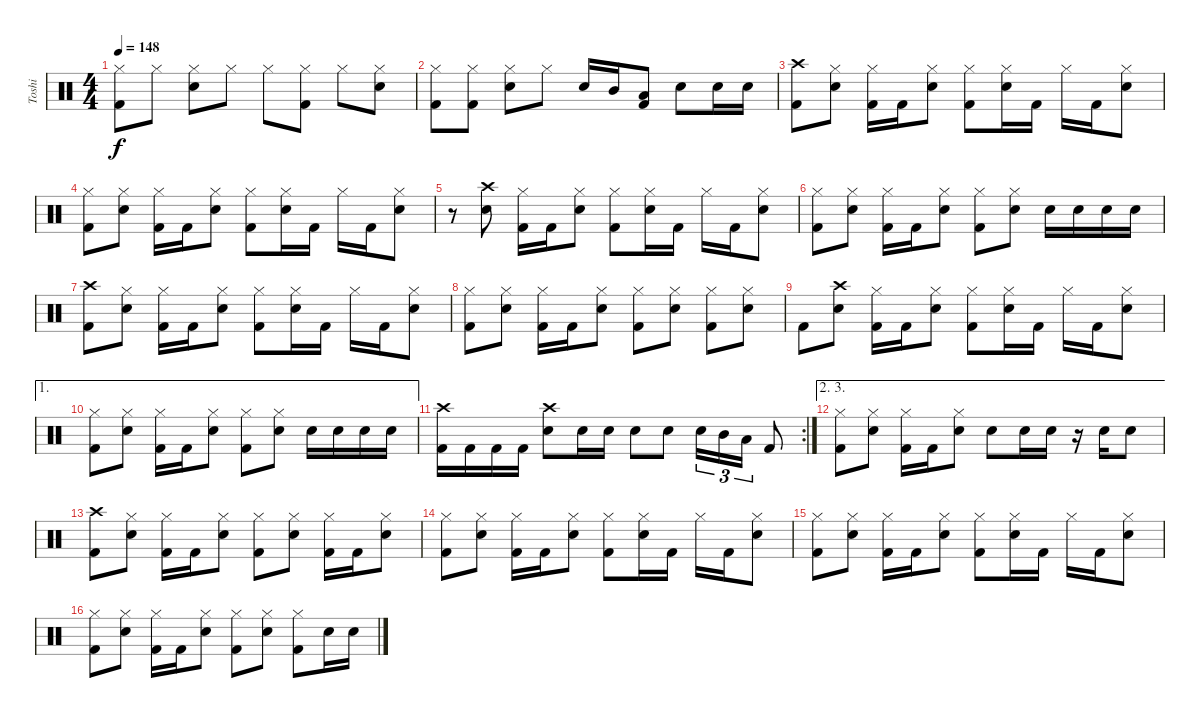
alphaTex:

\track ("Toshi" "Toshi") {instrument percussion}
\staff {score}
\articulation defaults
\ts (4 4)
\tempo 148
\clef neutral
\ks c
("Hi-Hat (closed)" "Kick (hit) 2").8{dy f} "Hi-Hat (closed)".8 ("Hi-Hat (closed)" "Snare (hit) 2").8 "Hi-Hat (closed)".8 "Hi-Hat (closed)".8 ("Hi-Hat (closed)" "Kick (hit) 2").8 "Hi-Hat (closed)".8 ("Hi-Hat (closed)" "Snare (hit) 2").8 |
("Hi-Hat (closed)" "Kick (hit) 2").8 ("Hi-Hat (closed)" "Kick (hit) 2").8 ("Hi-Hat (closed)" "Snare (hit) 2").8 "Hi-Hat (closed)".8 "Snare (hit) 2".16 "Mid Tom (hit)".16 ("Low Tom (hit)" "Kick (hit) 2").8 "Snare (hit) 2".8 "Snare (hit) 2".16 "Snare (hit) 2".16 |
("Crash high (hit)" "Kick (hit) 2").8 ("Hi-Hat (closed)" "Snare (hit) 2").8 ("Hi-Hat (closed)" "Kick (hit) 2").16 "Kick (hit) 2".16 ("Hi-Hat (closed)" "Snare (hit) 2").8 ("Hi-Hat (closed)" "Kick (hit) 2").8 ("Hi-Hat (closed)" "Snare (hit) 2").16 "Kick (hit) 2".16 "Hi-Hat (closed)".16 "Kick (hit) 2".16 ("Hi-Hat (closed)" "Snare (hit) 2").8 |
("Hi-Hat (closed)" "Kick (hit) 2").8 ("Hi-Hat (closed)" "Snare (hit) 2").8 ("Hi-Hat (closed)" "Kick (hit) 2").16 "Kick (hit) 2".16 ("Hi-Hat (closed)" "Snare (hit) 2").8 ("Hi-Hat (closed)" "Kick (hit) 2").8 ("Hi-Hat (closed)" "Snare (hit) 2").16 "Kick (hit) 2".16 "Hi-Hat (closed)".16 "Kick (hit) 2".16 ("Hi-Hat (closed)" "Snare (hit) 2").8 |
r.8 ("Crash high (hit)" "Snare (hit) 2").8 ("Hi-Hat (closed)" "Kick (hit) 2").16 "Kick (hit) 2".16 ("Hi-Hat (closed)" "Snare (hit) 2").8 ("Hi-Hat (closed)" "Kick (hit) 2").8 ("Hi-Hat (closed)" "Snare (hit) 2").16 "Kick (hit) 2".16 "Hi-Hat (closed)".16 "Kick (hit) 2".16 ("Hi-Hat (closed)" "Snare (hit) 2").8 |
("Hi-Hat (closed)" "Kick (hit) 2").8 ("Hi-Hat (closed)" "Snare (hit) 2").8 ("Hi-Hat (closed)" "Kick (hit) 2").16 "Kick (hit) 2".16 ("Hi-Hat (closed)" "Snare (hit) 2").8 ("Hi-Hat (closed)" "Kick (hit) 2").8 ("Hi-Hat (closed)" "Snare (hit) 2").8 "Snare (hit) 2".16 "Snare (hit) 2".16 "Snare (hit) 2".16 "Snare (hit) 2".16 |
("Crash high (hit)" "Kick (hit) 2").8 ("Hi-Hat (closed)" "Snare (hit) 2").8 ("Hi-Hat (closed)" "Kick (hit) 2").16 "Kick (hit) 2".16 ("Hi-Hat (closed)" "Snare (hit) 2").8 ("Hi-Hat (closed)" "Kick (hit) 2").8 ("Hi-Hat (closed)" "Snare (hit) 2").16 "Kick (hit) 2".16 "Hi-Hat (closed)".16 "Kick (hit) 2".16 ("Hi-Hat (closed)" "Snare (hit) 2").8 |
("Hi-Hat (closed)" "Kick (hit) 2").8 ("Hi-Hat (closed)" "Snare (hit) 2").8 ("Hi-Hat (closed)" "Kick (hit) 2").16 "Kick (hit) 2".16 ("Hi-Hat (closed)" "Snare (hit) 2").8 ("Hi-Hat (closed)" "Kick (hit) 2").8 ("Hi-Hat (closed)" "Snare (hit) 2").8 ("Hi-Hat (closed)" "Kick (hit) 2").8 ("Hi-Hat (closed)" "Snare (hit) 2").8 |
"Kick (hit) 2".8 ("Crash high (hit)" "Snare (hit) 2").8 ("Hi-Hat (closed)" "Kick (hit) 2").16 "Kick (hit) 2".16 ("Hi-Hat (closed)" "Snare (hit) 2").8 ("Hi-Hat (closed)" "Kick (hit) 2").8 ("Hi-Hat (closed)" "Snare (hit) 2").16 "Kick (hit) 2".16 "Hi-Hat (closed)".16 "Kick (hit) 2".16 ("Hi-Hat (closed)" "Snare (hit) 2").8 |
\ae 1
("Hi-Hat (closed)" "Kick (hit) 2").8 ("Hi-Hat (closed)" "Snare (hit) 2").8 ("Hi-Hat (closed)" "Kick (hit) 2").16 "Kick (hit) 2".16 ("Hi-Hat (closed)" "Snare (hit) 2").8 ("Hi-Hat (closed)" "Kick (hit) 2").8 ("Hi-Hat (closed)" "Snare (hit) 2").8 "Snare (hit) 2".16 "Snare (hit) 2".16 "Snare (hit) 2".16 "Snare (hit) 2".16 |
\rc 2
("Crash high (hit)" "Kick (hit) 2").16 "Kick (hit) 2".16 "Kick (hit) 2".16 "Kick (hit) 2".16 ("Crash high (hit)" "Snare (hit) 2").8 "Snare (hit) 2".16 "Snare (hit) 2".16 "Snare (hit) 2".8 "Snare (hit) 2".8 "Snare (hit) 2".16{tu (3 2)} "Mid Tom (hit)".16{tu (3 2)} "Low Tom (hit)".16{tu (3 2)} "Kick (hit) 2".8 |
\ae (2 3)
("Hi-Hat (closed)" "Kick (hit) 2").8 ("Hi-Hat (closed)" "Snare (hit) 2").8 ("Hi-Hat (closed)" "Kick (hit) 2").16 "Kick (hit) 2".16 ("Hi-Hat (closed)" "Snare (hit) 2").8 "Snare (hit) 2".8 "Snare (hit) 2".16 "Snare (hit) 2".16 r.16 "Snare (hit) 2".16 "Snare (hit) 2".8 |
("Crash high (hit)" "Kick (hit) 2").8 ("Hi-Hat (closed)" "Snare (hit) 2").8 ("Hi-Hat (closed)" "Kick (hit) 2").16 "Kick (hit) 2".16 ("Hi-Hat (closed)" "Snare (hit) 2").8 ("Hi-Hat (closed)" "Kick (hit) 2").8 ("Hi-Hat (closed)" "Snare (hit) 2").8 ("Hi-Hat (closed)" "Kick (hit) 2").16 "Kick (hit) 2".16 ("Hi-Hat (closed)" "Snare (hit) 2").8 |
("Hi-Hat (closed)" "Kick (hit) 2").8 ("Hi-Hat (closed)" "Snare (hit) 2").8 ("Hi-Hat (closed)" "Kick (hit) 2").16 "Kick (hit) 2".16 ("Hi-Hat (closed)" "Snare (hit) 2").8 ("Hi-Hat (closed)" "Kick (hit) 2").8 ("Hi-Hat (closed)" "Snare (hit) 2").16 "Kick (hit) 2".16 "Hi-Hat (closed)".16 "Kick (hit) 2".16 ("Hi-Hat (closed)" "Snare (hit) 2").8 |
("Hi-Hat (closed)" "Kick (hit) 2").8 ("Hi-Hat (closed)" "Snare (hit) 2").8 ("Hi-Hat (closed)" "Kick (hit) 2").16 "Kick (hit) 2".16 ("Hi-Hat (closed)" "Snare (hit) 2").8 ("Hi-Hat (closed)" "Kick (hit) 2").8 ("Hi-Hat (closed)" "Snare (hit) 2").16 "Kick (hit) 2".16 "Hi-Hat (closed)".16 "Kick (hit) 2".16 ("Hi-Hat (closed)" "Snare (hit) 2").8 |
("Hi-Hat (closed)" "Kick (hit) 2").8 ("Hi-Hat (closed)" "Snare (hit) 2").8 ("Hi-Hat (closed)" "Kick (hit) 2").16 "Kick (hit) 2".16 ("Hi-Hat (closed)" "Snare (hit) 2").8 ("Hi-Hat (closed)" "Kick (hit) 2").8 ("Hi-Hat (closed)" "Snare (hit) 2").8 ("Hi-Hat (closed)" "Kick (hit) 2").8 "Snare (hit) 2".16 "Snare (hit) 2".16
